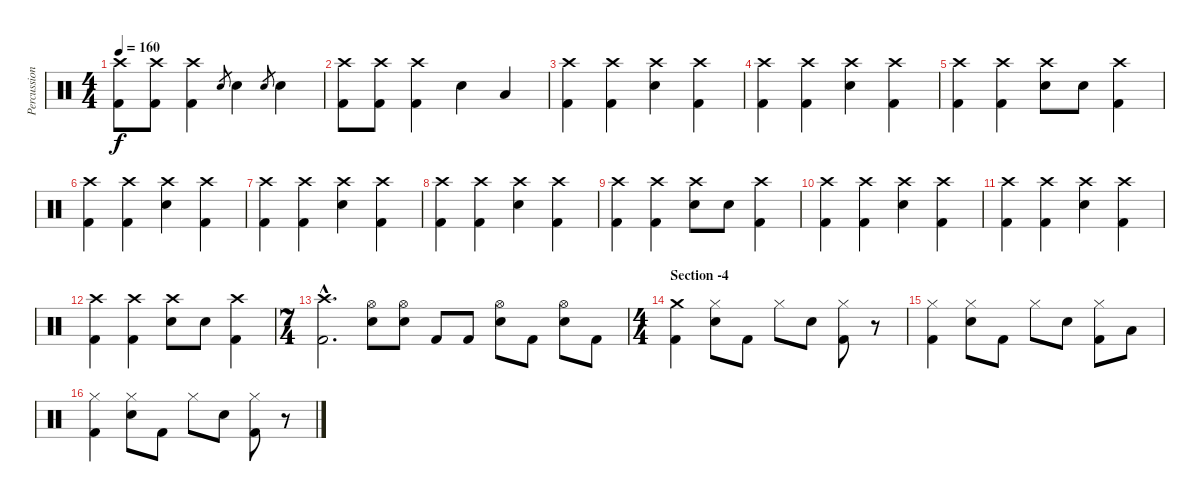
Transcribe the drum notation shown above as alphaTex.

\track ("Percussions" "Percussion") {instrument percussion}
\staff {score}
\articulation defaults
\ts (4 4)
\tempo 160
\clef neutral
\ks c
("Crash high (hit)" "Kick (hit) 2").8{dy f} ("Crash high (hit)" "Kick (hit) 2").8 ("Crash high (hit)" "Kick (hit) 2").4 "Snare (hit) 2".8{gr} "Snare (hit) 2".4 "Snare (hit) 2".8{gr} "Snare (hit) 2".4 |
("Crash high (hit)" "Kick (hit) 2").8 ("Crash high (hit)" "Kick (hit) 2").8 ("Crash high (hit)" "Kick (hit) 2").4 "Snare (hit) 2".4 "Low Tom (hit)".4 |
("Crash high (hit)" "Kick (hit) 2").4 ("Crash high (hit)" "Kick (hit) 2").4 ("Crash high (hit)" "Snare (hit) 2").4 ("Crash high (hit)" "Kick (hit) 2").4 |
("Crash high (hit)" "Kick (hit) 2").4 ("Crash high (hit)" "Kick (hit) 2").4 ("Crash high (hit)" "Snare (hit) 2").4 ("Crash high (hit)" "Kick (hit) 2").4 |
("Crash high (hit)" "Kick (hit) 2").4 ("Crash high (hit)" "Kick (hit) 2").4 ("Crash high (hit)" "Snare (hit) 2").8 "Snare (hit) 2".8 ("Crash high (hit)" "Kick (hit) 2").4 |
("Crash high (hit)" "Kick (hit) 2").4 ("Crash high (hit)" "Kick (hit) 2").4 ("Crash high (hit)" "Snare (hit) 2").4 ("Crash high (hit)" "Kick (hit) 2").4 |
("Crash high (hit)" "Kick (hit) 2").4 ("Crash high (hit)" "Kick (hit) 2").4 ("Crash high (hit)" "Snare (hit) 2").4 ("Crash high (hit)" "Kick (hit) 2").4 |
("Crash high (hit)" "Kick (hit) 2").4 ("Crash high (hit)" "Kick (hit) 2").4 ("Crash high (hit)" "Snare (hit) 2").4 ("Crash high (hit)" "Kick (hit) 2").4 |
("Crash high (hit)" "Kick (hit) 2").4 ("Crash high (hit)" "Kick (hit) 2").4 ("Crash high (hit)" "Snare (hit) 2").8 "Snare (hit) 2".8 ("Crash high (hit)" "Kick (hit) 2").4 |
("Crash high (hit)" "Kick (hit) 2").4 ("Crash high (hit)" "Kick (hit) 2").4 ("Crash high (hit)" "Snare (hit) 2").4 ("Crash high (hit)" "Kick (hit) 2").4 |
("Crash high (hit)" "Kick (hit) 2").4 ("Crash high (hit)" "Kick (hit) 2").4 ("Crash high (hit)" "Snare (hit) 2").4 ("Crash high (hit)" "Kick (hit) 2").4 |
("Crash high (hit)" "Kick (hit) 2").4 ("Crash high (hit)" "Kick (hit) 2").4 ("Crash high (hit)" "Snare (hit) 2").8 "Snare (hit) 2".8 ("Crash high (hit)" "Kick (hit) 2").4 |
\ts (7 4)
("Crash high (hit)"{hac} "Kick (hit) 2"{hac}).2{d} ("Hi-Hat (open)" "Snare (hit) 2").8 ("Hi-Hat (open)" "Snare (hit) 2").8 "Kick (hit) 2".8 "Kick (hit) 2".8 ("Hi-Hat (open)" "Snare (hit) 2").8 "Kick (hit) 2".8 ("Hi-Hat (open)" "Snare (hit) 2").8 "Kick (hit) 2".8 |
\ts (4 4)
\section ("" "Section -4")
("Crash medium (hit)" "Kick (hit) 2").4 ("Hi-Hat (closed)" "Snare (hit) 2").8 "Kick (hit) 2".8 "Hi-Hat (closed)".8 "Snare (hit) 2".8 ("Hi-Hat (closed)" "Kick (hit) 2").8 r.8 |
("Hi-Hat (closed)" "Kick (hit) 2").4 ("Hi-Hat (closed)" "Snare (hit) 2").8 "Kick (hit) 2".8 "Hi-Hat (closed)".8 "Snare (hit) 2".8 ("Hi-Hat (closed)" "Kick (hit) 2").8 "Low Tom (hit)".8 |
("Hi-Hat (closed)" "Kick (hit) 2").4 ("Hi-Hat (closed)" "Snare (hit) 2").8 "Kick (hit) 2".8 "Hi-Hat (closed)".8 "Snare (hit) 2".8 ("Hi-Hat (closed)" "Kick (hit) 2").8 r.8
